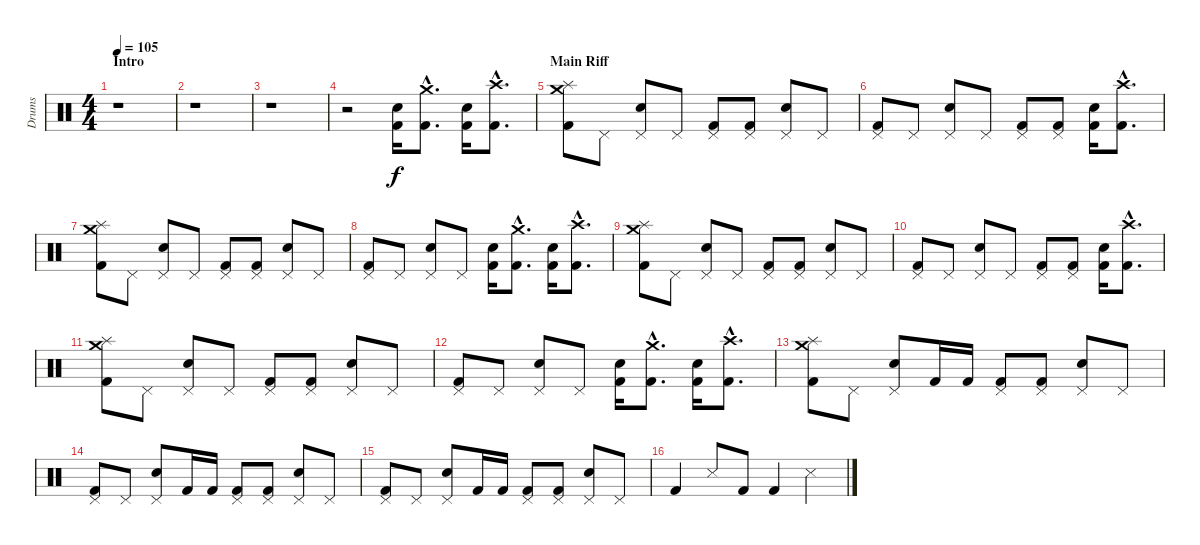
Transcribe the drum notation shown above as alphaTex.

\track ("Drums" "Drums") {instrument percussion}
\staff {score}
\articulation defaults
\ts (4 4)
\section ("" "Intro")
\tempo 105
\clef neutral
\ks c
r.1{dy f} |
r.1 |
r.1 |
r.2 ("Electric Snare (hit)" "Kick (hit) 2").16 ("Crash medium (hit)"{hac} "Kick (hit) 2"{hac}).8{d} ("Electric Snare (hit)" "Kick (hit) 2").16 ("Crash high (hit)"{hac} "Kick (hit) 2"{hac}).8{d} |
\section ("" "Main Riff")
("Crash medium (hit)" "Splash (hit)" "Kick (hit) 2").8 "Pedal Hi-Hat (hit)".8 ("Pedal Hi-Hat (hit)" "Electric Snare (hit)").8 "Pedal Hi-Hat (hit)".8 ("Pedal Hi-Hat (hit)" "Kick (hit) 2").8 ("Pedal Hi-Hat (hit)" "Kick (hit) 2").8 ("Pedal Hi-Hat (hit)" "Electric Snare (hit)").8 "Pedal Hi-Hat (hit)".8 |
("Pedal Hi-Hat (hit)" "Kick (hit) 2").8 "Pedal Hi-Hat (hit)".8 ("Pedal Hi-Hat (hit)" "Electric Snare (hit)").8 "Pedal Hi-Hat (hit)".8 ("Pedal Hi-Hat (hit)" "Kick (hit) 2").8 ("Pedal Hi-Hat (hit)" "Kick (hit) 2").8 ("Electric Snare (hit)" "Kick (hit) 2").16 ("Crash high (hit)"{hac} "Kick (hit) 2"{hac}).8{d} |
("Crash medium (hit)" "Splash (hit)" "Kick (hit) 2").8 "Pedal Hi-Hat (hit)".8 ("Pedal Hi-Hat (hit)" "Electric Snare (hit)").8 "Pedal Hi-Hat (hit)".8 ("Pedal Hi-Hat (hit)" "Kick (hit) 2").8 ("Pedal Hi-Hat (hit)" "Kick (hit) 2").8 ("Pedal Hi-Hat (hit)" "Electric Snare (hit)").8 "Pedal Hi-Hat (hit)".8 |
("Pedal Hi-Hat (hit)" "Kick (hit) 2").8 "Pedal Hi-Hat (hit)".8 ("Pedal Hi-Hat (hit)" "Electric Snare (hit)").8 "Pedal Hi-Hat (hit)".8 ("Electric Snare (hit)" "Kick (hit) 2").16 ("Crash medium (hit)"{hac} "Kick (hit) 2"{hac}).8{d} ("Electric Snare (hit)" "Kick (hit) 2").16 ("Crash high (hit)"{hac} "Kick (hit) 2"{hac}).8{d} |
("Crash medium (hit)" "Splash (hit)" "Kick (hit) 2").8 "Pedal Hi-Hat (hit)".8 ("Pedal Hi-Hat (hit)" "Electric Snare (hit)").8 "Pedal Hi-Hat (hit)".8 ("Pedal Hi-Hat (hit)" "Kick (hit) 2").8 ("Pedal Hi-Hat (hit)" "Kick (hit) 2").8 ("Pedal Hi-Hat (hit)" "Electric Snare (hit)").8 "Pedal Hi-Hat (hit)".8 |
("Pedal Hi-Hat (hit)" "Kick (hit) 2").8 "Pedal Hi-Hat (hit)".8 ("Pedal Hi-Hat (hit)" "Electric Snare (hit)").8 "Pedal Hi-Hat (hit)".8 ("Pedal Hi-Hat (hit)" "Kick (hit) 2").8 ("Pedal Hi-Hat (hit)" "Kick (hit) 2").8 ("Electric Snare (hit)" "Kick (hit) 2").16 ("Crash high (hit)"{hac} "Kick (hit) 2"{hac}).8{d} |
("Crash medium (hit)" "Splash (hit)" "Kick (hit) 2").8 "Pedal Hi-Hat (hit)".8 ("Pedal Hi-Hat (hit)" "Electric Snare (hit)").8 "Pedal Hi-Hat (hit)".8 ("Pedal Hi-Hat (hit)" "Kick (hit) 2").8 ("Pedal Hi-Hat (hit)" "Kick (hit) 2").8 ("Pedal Hi-Hat (hit)" "Electric Snare (hit)").8 "Pedal Hi-Hat (hit)".8 |
("Pedal Hi-Hat (hit)" "Kick (hit) 2").8 "Pedal Hi-Hat (hit)".8 ("Pedal Hi-Hat (hit)" "Electric Snare (hit)").8 "Pedal Hi-Hat (hit)".8 ("Electric Snare (hit)" "Kick (hit) 2").16 ("Crash medium (hit)"{hac} "Kick (hit) 2"{hac}).8{d} ("Electric Snare (hit)" "Kick (hit) 2").16 ("Crash high (hit)"{hac} "Kick (hit) 2"{hac}).8{d} |
("Crash medium (hit)" "Splash (hit)" "Kick (hit) 2").8 "Pedal Hi-Hat (hit)".8 ("Pedal Hi-Hat (hit)" "Electric Snare (hit)").8 "Kick (hit) 2".16 "Kick (hit) 2".16 ("Pedal Hi-Hat (hit)" "Kick (hit) 2").8 ("Pedal Hi-Hat (hit)" "Kick (hit) 2").8 ("Pedal Hi-Hat (hit)" "Electric Snare (hit)").8 "Pedal Hi-Hat (hit)".8 |
("Pedal Hi-Hat (hit)" "Kick (hit) 2").8 "Pedal Hi-Hat (hit)".8 ("Pedal Hi-Hat (hit)" "Electric Snare (hit)").8 "Kick (hit) 2".16 "Kick (hit) 2".16 ("Pedal Hi-Hat (hit)" "Kick (hit) 2").8 ("Pedal Hi-Hat (hit)" "Kick (hit) 2").8 ("Pedal Hi-Hat (hit)" "Electric Snare (hit)").8 "Pedal Hi-Hat (hit)".8 |
("Pedal Hi-Hat (hit)" "Kick (hit) 2").8 "Pedal Hi-Hat (hit)".8 ("Pedal Hi-Hat (hit)" "Electric Snare (hit)").8 "Kick (hit) 2".16 "Kick (hit) 2".16 ("Pedal Hi-Hat (hit)" "Kick (hit) 2").8 ("Pedal Hi-Hat (hit)" "Kick (hit) 2").8 ("Pedal Hi-Hat (hit)" "Electric Snare (hit)").8 "Pedal Hi-Hat (hit)".8 |
"Kick (hit) 2".4 "Snare (side stick) 3".8 "Kick (hit) 2".8 "Kick (hit) 2".4 "Snare (side stick) 3".4
